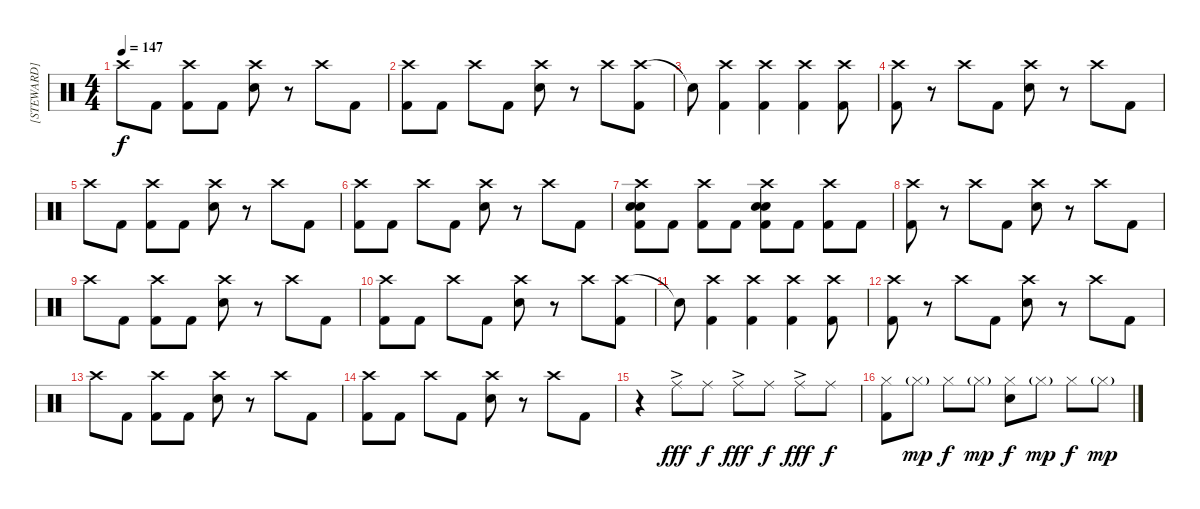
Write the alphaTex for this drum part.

\track ("[STEWARD]" "[STEWARD]") {instrument percussion}
\staff {score}
\articulation defaults
\ts (4 4)
\tempo 147
\clef neutral
\ks c "Crash high (hit)".8{dy f} "Kick (hit) 2".8
("Crash high (hit)" "Kick (hit) 2").8 "Kick (hit) 2".8 ("Crash high (hit)" "Electric Snare (hit)").8 r.8 "Crash high (hit)".8 "Kick (hit) 2".8 |
("Crash high (hit)" "Kick (hit) 2").8 "Kick (hit) 2".8 "Crash high (hit)".8 "Kick (hit) 2".8 ("Crash high (hit)" "Electric Snare (hit)").8 r.8 "Crash high (hit)".8 ("Crash high (hit)" "Kick (hit) 2").8 |
"Snare (hit)"{t}.8 ("Crash high (hit)" "Kick (hit) 2").4 ("Crash high (hit)" "Kick (hit) 2").4 ("Crash high (hit)" "Kick (hit) 2").4 ("Crash high (hit)" "Kick (hit) 2").8 |
("Crash high (hit)" "Kick (hit) 2").8 r.8 "Crash high (hit)".8 "Kick (hit) 2".8 ("Crash high (hit)" "Electric Snare (hit)").8 r.8 "Crash high (hit)".8 "Kick (hit) 2".8 |
"Crash high (hit)".8 "Kick (hit) 2".8 ("Crash high (hit)" "Kick (hit) 2").8 "Kick (hit) 2".8 ("Crash high (hit)" "Electric Snare (hit)").8 r.8 "Crash high (hit)".8 "Kick (hit) 2".8 |
("Crash high (hit)" "Kick (hit) 2").8 "Kick (hit) 2".8 "Crash high (hit)".8 "Kick (hit) 2".8 ("Crash high (hit)" "Electric Snare (hit)").8 r.8 "Crash high (hit)".8 "Kick (hit) 2".8 |
("Crash high (hit)" "Electric Snare (hit)" "Snare (hit) 2" "Kick (hit) 2").8 "Kick (hit) 2".8 ("Crash high (hit)" "Kick (hit) 2").8 "Kick (hit) 2".8 ("Crash high (hit)" "Electric Snare (hit)" "Snare (hit) 2" "Kick (hit) 2").8 "Kick (hit) 2".8 ("Crash high (hit)" "Kick (hit) 2").8 "Kick (hit) 2".8 |
("Crash high (hit)" "Kick (hit) 2").8 r.8 "Crash high (hit)".8 "Kick (hit) 2".8 ("Crash high (hit)" "Electric Snare (hit)").8 r.8 "Crash high (hit)".8 "Kick (hit) 2".8 |
"Crash high (hit)".8 "Kick (hit) 2".8 ("Crash high (hit)" "Kick (hit) 2").8 "Kick (hit) 2".8 ("Crash high (hit)" "Electric Snare (hit)").8 r.8 "Crash high (hit)".8 "Kick (hit) 2".8 |
("Crash high (hit)" "Kick (hit) 2").8 "Kick (hit) 2".8 "Crash high (hit)".8 "Kick (hit) 2".8 ("Crash high (hit)" "Electric Snare (hit)").8 r.8 "Crash high (hit)".8 ("Crash high (hit)" "Kick (hit) 2").8 |
"Snare (hit)"{t}.8 ("Crash high (hit)" "Kick (hit) 2").4 ("Crash high (hit)" "Kick (hit) 2").4 ("Crash high (hit)" "Kick (hit) 2").4 ("Crash high (hit)" "Kick (hit) 2").8 |
("Crash high (hit)" "Kick (hit) 2").8 r.8 "Crash high (hit)".8 "Kick (hit) 2".8 ("Crash high (hit)" "Electric Snare (hit)").8 r.8 "Crash high (hit)".8 "Kick (hit) 2".8 |
"Crash high (hit)".8 "Kick (hit) 2".8 ("Crash high (hit)" "Kick (hit) 2").8 "Kick (hit) 2".8 ("Crash high (hit)" "Electric Snare (hit)").8 r.8 "Crash high (hit)".8 "Kick (hit) 2".8 |
("Crash high (hit)" "Kick (hit) 2").8 "Kick (hit) 2".8 "Crash high (hit)".8 "Kick (hit) 2".8 ("Crash high (hit)" "Electric Snare (hit)").8 r.8 "Crash high (hit)".8 "Kick (hit) 2".8 |
r.4 "Ride (middle)"{ac}.8{dy fff} "Ride (middle)".8{dy f} "Ride (middle)"{ac}.8{dy fff} "Ride (middle)".8{dy f} "Ride (middle)"{ac}.8{dy fff} "Ride (middle)".8{dy f} |
("Hi-Hat (closed)" "Kick (hit) 2").8 "Hi-Hat (closed)"{g}.8{dy mp} "Hi-Hat (closed)".8{dy f} "Hi-Hat (closed)"{g}.8{dy mp} ("Hi-Hat (closed)" "Snare (hit) 2").8{dy f} "Hi-Hat (closed)"{g}.8{dy mp} "Hi-Hat (closed)".8{dy f} "Hi-Hat (closed)"{g}.8{dy mp}
